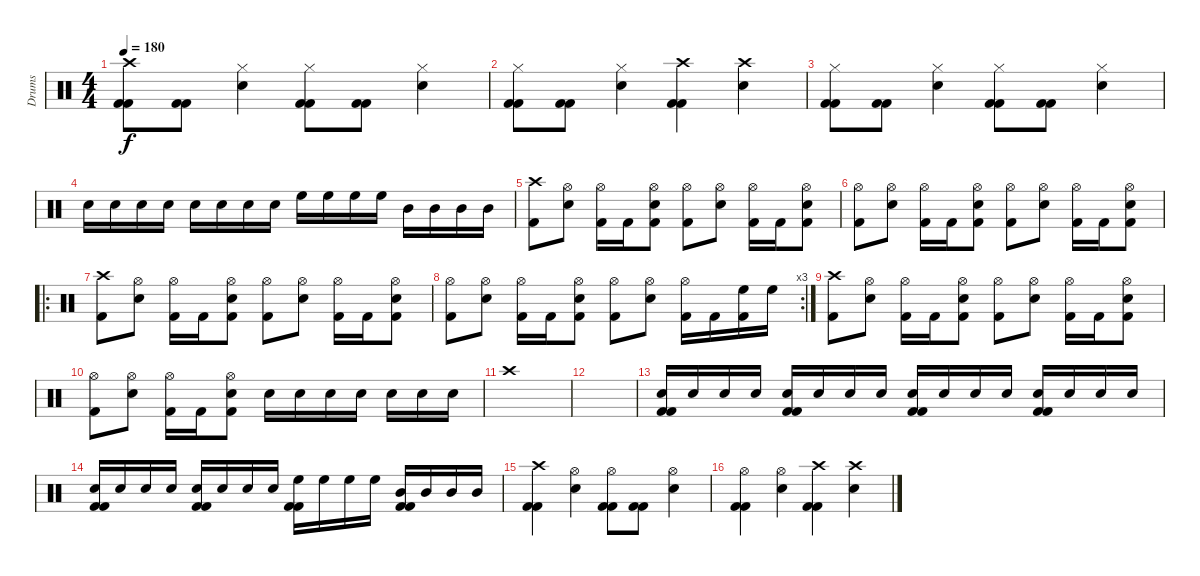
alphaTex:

\track ("Drums" "Drums") {instrument percussion}
\staff {score}
\articulation defaults
\ts (4 4)
\tempo 180
\clef neutral
\ks c
("Crash high (hit)" "Kick (hit) 2" "Kick (hit) 2").8{dy f} ("Kick (hit) 2" "Kick (hit) 2").8 ("Hi-Hat (closed)" "Snare (hit) 2").4 ("Hi-Hat (closed)" "Kick (hit) 2" "Kick (hit) 2").8 ("Kick (hit) 2" "Kick (hit) 2").8 ("Hi-Hat (closed)" "Snare (hit) 2").4 |
("Hi-Hat (closed)" "Kick (hit) 2" "Kick (hit) 2").8 ("Kick (hit) 2" "Kick (hit) 2").8 ("Hi-Hat (closed)" "Snare (hit) 2").4 ("Crash high (hit)" "Kick (hit) 2" "Kick (hit) 2").4 ("Crash high (hit)" "Snare (hit) 2").4 |
("Hi-Hat (closed)" "Kick (hit) 2" "Kick (hit) 2").8 ("Kick (hit) 2" "Kick (hit) 2").8 ("Hi-Hat (closed)" "Snare (hit) 2").4 ("Hi-Hat (closed)" "Kick (hit) 2" "Kick (hit) 2").8 ("Kick (hit) 2" "Kick (hit) 2").8 ("Hi-Hat (closed)" "Snare (hit) 2").4 |
"Snare (hit) 2".16 "Snare (hit) 2".16 "Snare (hit) 2".16 "Snare (hit) 2".16 "Snare (hit) 2".16 "Snare (hit) 2".16 "Snare (hit) 2".16 "Snare (hit) 2".16 "High Floor Tom (hit)".16 "High Floor Tom (hit)".16 "High Floor Tom (hit)".16 "High Floor Tom (hit)".16 "Mid Tom (hit)".16 "Mid Tom (hit)".16 "Mid Tom (hit)".16 "Mid Tom (hit)".16 |
("Crash high (hit)" "Kick (hit) 2").8 ("Hi-Hat (open)" "Snare (hit) 2").8 ("Hi-Hat (open)" "Kick (hit) 2").16 "Kick (hit) 2".16 ("Hi-Hat (open)" "Snare (hit) 2" "Kick (hit) 2").8 ("Hi-Hat (open)" "Kick (hit) 2").8 ("Hi-Hat (open)" "Snare (hit) 2").8 ("Hi-Hat (open)" "Kick (hit) 2").16 "Kick (hit) 2".16 ("Hi-Hat (open)" "Snare (hit) 2" "Kick (hit) 2").8 |
("Hi-Hat (open)" "Kick (hit) 2").8 ("Hi-Hat (open)" "Snare (hit) 2").8 ("Hi-Hat (open)" "Kick (hit) 2").16 "Kick (hit) 2".16 ("Hi-Hat (open)" "Snare (hit) 2" "Kick (hit) 2").8 ("Hi-Hat (open)" "Kick (hit) 2").8 ("Hi-Hat (open)" "Snare (hit) 2").8 ("Hi-Hat (open)" "Kick (hit) 2").16 "Kick (hit) 2".16 ("Hi-Hat (open)" "Snare (hit) 2" "Kick (hit) 2").8 |
\ro
("Crash high (hit)" "Kick (hit) 2").8 ("Hi-Hat (open)" "Snare (hit) 2").8 ("Hi-Hat (open)" "Kick (hit) 2").16 "Kick (hit) 2".16 ("Hi-Hat (open)" "Snare (hit) 2" "Kick (hit) 2").8 ("Hi-Hat (open)" "Kick (hit) 2").8 ("Hi-Hat (open)" "Snare (hit) 2").8 ("Hi-Hat (open)" "Kick (hit) 2").16 "Kick (hit) 2".16 ("Hi-Hat (open)" "Snare (hit) 2" "Kick (hit) 2").8 |
\rc 3
("Hi-Hat (open)" "Kick (hit) 2").8 ("Hi-Hat (open)" "Snare (hit) 2").8 ("Hi-Hat (open)" "Kick (hit) 2").16 "Kick (hit) 2".16 ("Hi-Hat (open)" "Snare (hit) 2" "Kick (hit) 2").8 ("Hi-Hat (open)" "Kick (hit) 2").8 ("Hi-Hat (open)" "Snare (hit) 2").8 ("Hi-Hat (open)" "Kick (hit) 2").16 "Kick (hit) 2".16 ("High Floor Tom (hit)" "Kick (hit) 2").16 "High Floor Tom (hit)".16 |
("Crash high (hit)" "Kick (hit) 2").8 ("Hi-Hat (open)" "Snare (hit) 2").8 ("Hi-Hat (open)" "Kick (hit) 2").16 "Kick (hit) 2".16 ("Hi-Hat (open)" "Snare (hit) 2" "Kick (hit) 2").8 ("Hi-Hat (open)" "Kick (hit) 2").8 ("Hi-Hat (open)" "Snare (hit) 2").8 ("Hi-Hat (open)" "Kick (hit) 2").16 "Kick (hit) 2".16 ("Hi-Hat (open)" "Snare (hit) 2" "Kick (hit) 2").8 |
("Hi-Hat (open)" "Kick (hit) 2").8 ("Hi-Hat (open)" "Snare (hit) 2").8 ("Hi-Hat (open)" "Kick (hit) 2").16 "Kick (hit) 2".16 ("Hi-Hat (open)" "Snare (hit) 2" "Kick (hit) 2").8 "Snare (hit) 2".16 "Snare (hit) 2".16 "Snare (hit) 2".16 "Snare (hit) 2".16 "Snare (hit) 2".16 "Snare (hit) 2".16 "Snare (hit) 2".16 |
"Crash high (hit)".1 |
|
("Snare (hit) 2" "Kick (hit) 2" "Kick (hit) 2").16 "Snare (hit) 2".16 "Snare (hit) 2".16 "Snare (hit) 2".16 ("Snare (hit) 2" "Kick (hit) 2" "Kick (hit) 2").16 "Snare (hit) 2".16 "Snare (hit) 2".16 "Snare (hit) 2".16 ("Snare (hit) 2" "Kick (hit) 2" "Kick (hit) 2").16 "Snare (hit) 2".16 "Snare (hit) 2".16 "Snare (hit) 2".16 ("Snare (hit) 2" "Kick (hit) 2" "Kick (hit) 2").16 "Snare (hit) 2".16 "Snare (hit) 2".16 "Snare (hit) 2".16 |
("Snare (hit) 2" "Kick (hit) 2" "Kick (hit) 2").16 "Snare (hit) 2".16 "Snare (hit) 2".16 "Snare (hit) 2".16 ("Snare (hit) 2" "Kick (hit) 2" "Kick (hit) 2").16 "Snare (hit) 2".16 "Snare (hit) 2".16 "Snare (hit) 2".16 ("High Floor Tom (hit)" "Kick (hit) 2" "Kick (hit) 2").16 "High Floor Tom (hit)".16 "High Floor Tom (hit)".16 "High Floor Tom (hit)".16 ("Mid Tom (hit)" "Kick (hit) 2" "Kick (hit) 2").16 "Mid Tom (hit)".16 "Mid Tom (hit)".16 "Mid Tom (hit)".16 |
("Crash high (hit)" "Kick (hit) 2" "Kick (hit) 2").4 ("Hi-Hat (open)" "Snare (hit) 2").4 ("Hi-Hat (open)" "Kick (hit) 2" "Kick (hit) 2").8 ("Kick (hit) 2" "Kick (hit) 2").8 ("Hi-Hat (open)" "Snare (hit) 2").4 |
("Hi-Hat (open)" "Kick (hit) 2" "Kick (hit) 2").4 ("Hi-Hat (open)" "Snare (hit) 2").4 ("Crash high (hit)" "Kick (hit) 2" "Kick (hit) 2").4 ("Crash high (hit)" "Snare (hit) 2").4
